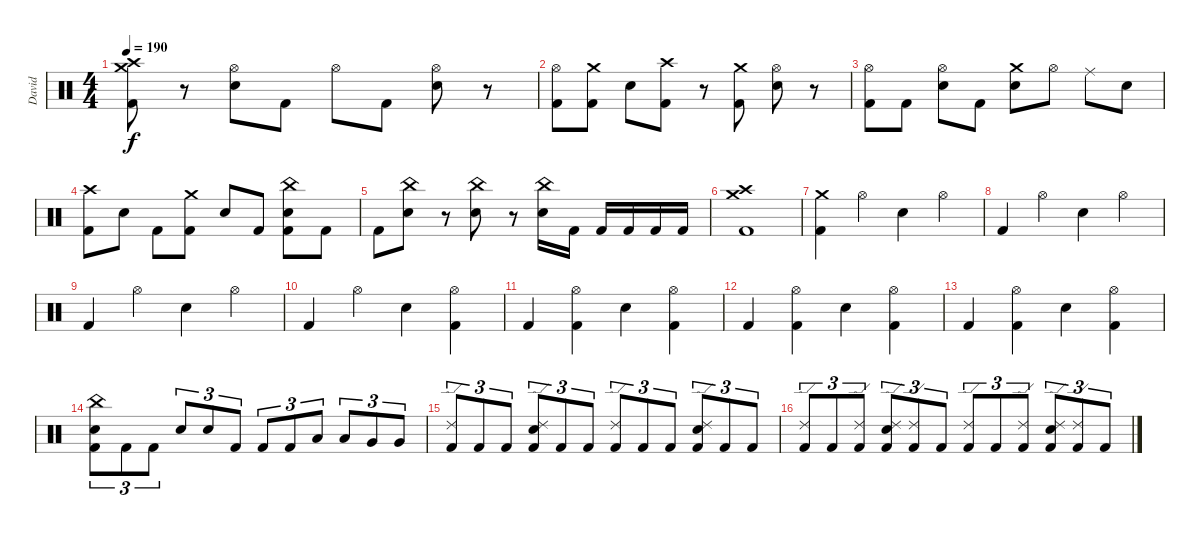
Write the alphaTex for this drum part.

\track ("David" "David") {instrument percussion}
\staff {score}
\articulation defaults
\ts (4 4)
\tempo 190
\clef neutral
\ks c
("Crash medium (hit)" "Crash high (hit)" "Kick (hit) 2").8{dy f} r.8 ("Hi-Hat (open)" "Electric Snare (hit)").8 "Kick (hit) 2".8 "Hi-Hat (open)".8 "Kick (hit) 2".8 ("Hi-Hat (open)" "Electric Snare (hit)").8 r.8 |
("Hi-Hat (open)" "Kick (hit) 2").8 ("Crash medium (hit)" "Kick (hit) 2").8 "Electric Snare (hit)".8 ("Crash high (hit)" "Kick (hit) 2").8 r.8 ("Crash medium (hit)" "Kick (hit) 2").8 ("Hi-Hat (open)" "Electric Snare (hit)").8 r.8 |
("Hi-Hat (open)" "Kick (hit) 2").8 "Kick (hit) 2".8 ("Hi-Hat (open)" "Electric Snare (hit)").8 "Kick (hit) 2".8 ("Crash medium (hit)" "Electric Snare (hit)").8 "Hi-Hat (open)".8 "Ride (middle)".8 "Electric Snare (hit)".8 |
("Crash high (hit)" "Kick (hit) 2").8 "Electric Snare (hit)".8 "Kick (hit) 2".8 ("Crash medium (hit)" "Kick (hit) 2").8 "Electric Snare (hit)".8 "Kick (hit) 2".8 ("China (hit)" "Electric Snare (hit)" "Kick (hit) 2").8 "Kick (hit) 2".8 |
"Kick (hit) 2".8 ("China (hit)" "Electric Snare (hit)").8 r.8 ("China (hit)" "Electric Snare (hit)").8 r.8 ("China (hit)" "Electric Snare (hit)").16 "Kick (hit) 2".16 "Kick (hit) 2".16 "Kick (hit) 2".16 "Kick (hit) 2".16 "Kick (hit) 2".16 |
("Crash medium (hit)" "Crash high (hit)" "Kick (hit) 2").1 |
("Crash medium (hit)" "Kick (hit) 2").4 "Hi-Hat (open)".4 "Electric Snare (hit)".4 "Hi-Hat (open)".4 |
"Kick (hit) 2".4 "Hi-Hat (open)".4 "Electric Snare (hit)".4 "Hi-Hat (open)".4 |
"Kick (hit) 2".4 "Hi-Hat (open)".4 "Electric Snare (hit)".4 "Hi-Hat (open)".4 |
"Kick (hit) 2".4 "Hi-Hat (open)".4 "Electric Snare (hit)".4 ("Hi-Hat (open)" "Kick (hit) 2").4 |
"Kick (hit) 2".4 ("Hi-Hat (open)" "Kick (hit) 2").4 "Electric Snare (hit)".4 ("Hi-Hat (open)" "Kick (hit) 2").4 |
"Kick (hit) 2".4 ("Hi-Hat (open)" "Kick (hit) 2").4 "Electric Snare (hit)".4 ("Hi-Hat (open)" "Kick (hit) 2").4 |
"Kick (hit) 2".4 ("Hi-Hat (open)" "Kick (hit) 2").4 "Electric Snare (hit)".4 ("Hi-Hat (open)" "Kick (hit) 2").4 |
("China (hit)" "Electric Snare (hit)" "Kick (hit) 2").8{tu (3 2)} "Kick (hit) 2".8{tu (3 2)} "Kick (hit) 2".8{tu (3 2)} "Electric Snare (hit)".8{tu (3 2)} "Electric Snare (hit)".8{tu (3 2)} "Kick (hit) 2".8{tu (3 2)} "Kick (hit) 2".8{tu (3 2)} "Kick (hit) 2".8{tu (3 2)} "Low Tom (hit)".8{tu (3 2)} "Low Tom (hit)".8{tu (3 2)} "Very Low Tom (hit)".8{tu (3 2)} "Very Low Tom (hit)".8{tu (3 2)} |
("Ride (edge) 2" "Kick (hit) 2").8{tu (3 2)} "Kick (hit) 2".8{tu (3 2)} "Kick (hit) 2".8{tu (3 2)} ("Ride (edge) 2" "Electric Snare (hit)" "Kick (hit) 2").8{tu (3 2)} "Kick (hit) 2".8{tu (3 2)} "Kick (hit) 2".8{tu (3 2)} ("Ride (edge) 2" "Kick (hit) 2").8{tu (3 2)} "Kick (hit) 2".8{tu (3 2)} "Kick (hit) 2".8{tu (3 2)} ("Ride (edge) 2" "Electric Snare (hit)" "Kick (hit) 2").8{tu (3 2)} "Kick (hit) 2".8{tu (3 2)} "Kick (hit) 2".8{tu (3 2)} |
("Ride (edge) 2" "Kick (hit) 2").8{tu (3 2)} "Kick (hit) 2".8{tu (3 2)} ("Ride (edge) 2" "Kick (hit) 2").8{tu (3 2)} ("Ride (edge) 2" "Electric Snare (hit)" "Kick (hit) 2").8{tu (3 2)} ("Ride (edge) 2" "Kick (hit) 2").8{tu (3 2)} "Kick (hit) 2".8{tu (3 2)} ("Ride (edge) 2" "Kick (hit) 2").8{tu (3 2)} "Kick (hit) 2".8{tu (3 2)} ("Ride (edge) 2" "Kick (hit) 2").8{tu (3 2)} ("Ride (edge) 2" "Electric Snare (hit)" "Kick (hit) 2").8{tu (3 2)} ("Ride (edge) 2" "Kick (hit) 2").8{tu (3 2)} "Kick (hit) 2".8{tu (3 2)}
